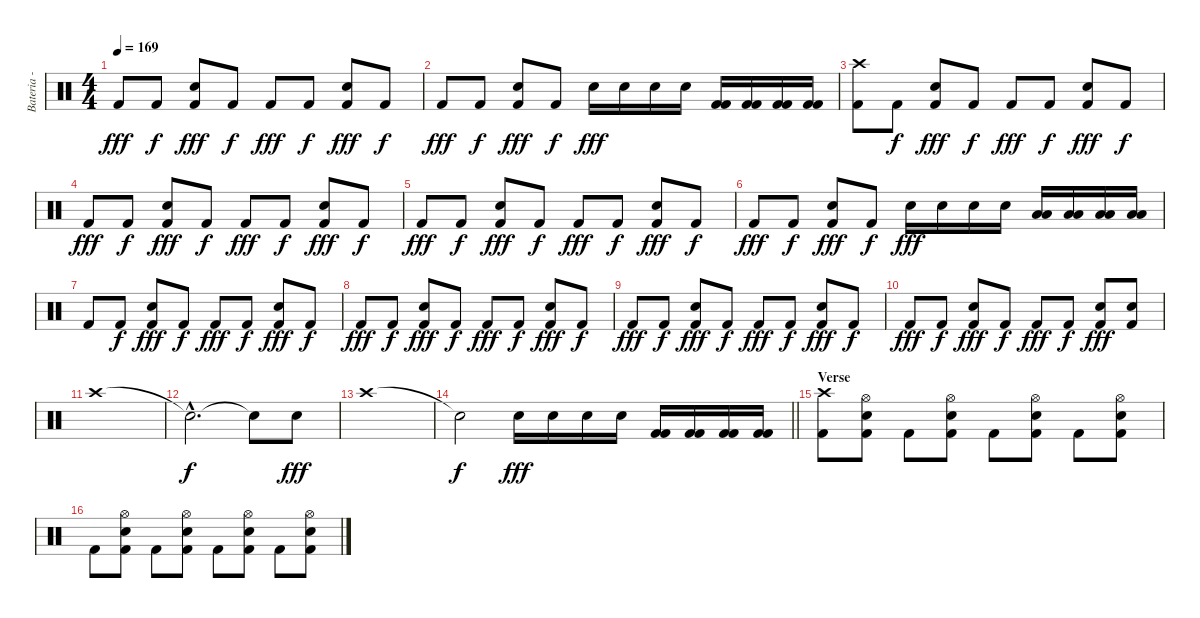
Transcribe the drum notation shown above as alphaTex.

\track ("Bateria - Larzon" "Bateria - ") {instrument percussion}
\staff {score}
\articulation defaults
\ts (4 4)
\tempo 169
\clef neutral
\ks c "Kick (hit) 2".8{dy fff} "Kick (hit) 2".8{dy f}
("Kick (hit) 2" "Snare (hit) 2").8{dy fff} "Kick (hit) 2".8{dy f} "Kick (hit) 2".8{dy fff} "Kick (hit) 2".8{dy f} ("Kick (hit) 2" "Snare (hit) 2").8{dy fff} "Kick (hit) 2".8{dy f} |
"Kick (hit) 2".8{dy fff} "Kick (hit) 2".8{dy f} ("Kick (hit) 2" "Snare (hit) 2").8{dy fff} "Kick (hit) 2".8{dy f} "Snare (hit) 2".16{dy fff} "Snare (hit) 2".16 "Snare (hit) 2".16 "Snare (hit) 2".16 ("Kick (hit) 2" "Kick (hit) 2").16 ("Kick (hit) 2" "Kick (hit) 2").16 ("Kick (hit) 2" "Kick (hit) 2").16 ("Kick (hit) 2" "Kick (hit) 2").16 |
("Crash high (hit)" "Kick (hit) 2").8 "Kick (hit) 2".8{dy f} ("Kick (hit) 2" "Snare (hit) 2").8{dy fff} "Kick (hit) 2".8{dy f} "Kick (hit) 2".8{dy fff} "Kick (hit) 2".8{dy f} ("Kick (hit) 2" "Snare (hit) 2").8{dy fff} "Kick (hit) 2".8{dy f} |
"Kick (hit) 2".8{dy fff} "Kick (hit) 2".8{dy f} ("Kick (hit) 2" "Snare (hit) 2").8{dy fff} "Kick (hit) 2".8{dy f} "Kick (hit) 2".8{dy fff} "Kick (hit) 2".8{dy f} ("Kick (hit) 2" "Snare (hit) 2").8{dy fff} "Kick (hit) 2".8{dy f} |
"Kick (hit) 2".8{dy fff} "Kick (hit) 2".8{dy f} ("Kick (hit) 2" "Snare (hit) 2").8{dy fff} "Kick (hit) 2".8{dy f} "Kick (hit) 2".8{dy fff} "Kick (hit) 2".8{dy f} ("Kick (hit) 2" "Snare (hit) 2").8{dy fff} "Kick (hit) 2".8{dy f} |
"Kick (hit) 2".8{dy fff} "Kick (hit) 2".8{dy f} ("Kick (hit) 2" "Snare (hit) 2").8{dy fff} "Kick (hit) 2".8{dy f} "Snare (hit) 2".16{dy fff} "Snare (hit) 2".16 "Snare (hit) 2".16 "Snare (hit) 2".16 ("Low Floor Tom (hit)" "Low Floor Tom (hit)").16 ("Low Floor Tom (hit)" "Low Floor Tom (hit)").16 ("Low Floor Tom (hit)" "Low Floor Tom (hit)").16 ("Low Floor Tom (hit)" "Low Floor Tom (hit)").16 |
"Kick (hit) 2".8 "Kick (hit) 2".8{dy f} ("Kick (hit) 2" "Snare (hit) 2").8{dy fff} "Kick (hit) 2".8{dy f} "Kick (hit) 2".8{dy fff} "Kick (hit) 2".8{dy f} ("Kick (hit) 2" "Snare (hit) 2").8{dy fff} "Kick (hit) 2".8{dy f} |
"Kick (hit) 2".8{dy fff} "Kick (hit) 2".8{dy f} ("Kick (hit) 2" "Snare (hit) 2").8{dy fff} "Kick (hit) 2".8{dy f} "Kick (hit) 2".8{dy fff} "Kick (hit) 2".8{dy f} ("Kick (hit) 2" "Snare (hit) 2").8{dy fff} "Kick (hit) 2".8{dy f} |
"Kick (hit) 2".8{dy fff} "Kick (hit) 2".8{dy f} ("Kick (hit) 2" "Snare (hit) 2").8{dy fff} "Kick (hit) 2".8{dy f} "Kick (hit) 2".8{dy fff} "Kick (hit) 2".8{dy f} ("Kick (hit) 2" "Snare (hit) 2").8{dy fff} "Kick (hit) 2".8{dy f} |
"Kick (hit) 2".8{dy fff} "Kick (hit) 2".8{dy f} ("Kick (hit) 2" "Snare (hit) 2").8{dy fff} "Kick (hit) 2".8{dy f} "Kick (hit) 2".8{dy fff} "Kick (hit) 2".8{dy f} ("Kick (hit) 2" "Snare (hit) 2").8{dy fff} ("Kick (hit) 2" "Snare (hit) 2").8 |
"Crash high (hit)".1 |
"Snare (hit)"{hac t}.2{d dy f} "Snare (hit)"{t}.8 "Snare (hit) 2".8{dy fff} |
"Crash high (hit)".1 |
\barLineRight lightlight "Snare (hit)"{t}.2{dy f} "Snare (hit) 2".16{dy fff} "Snare (hit) 2".16 "Snare (hit) 2".16 "Snare (hit) 2".16
("Kick (hit) 2" "Kick (hit) 2").16 ("Kick (hit) 2" "Kick (hit) 2").16 ("Kick (hit) 2" "Kick (hit) 2").16 ("Kick (hit) 2" "Kick (hit) 2").16 |
\section ("" "Verse")
("Crash high (hit)" "Kick (hit) 2").8 ("Kick (hit) 2" "Hi-Hat (open)" "Snare (hit) 2").8 "Kick (hit) 2".8 ("Kick (hit) 2" "Hi-Hat (open)" "Snare (hit) 2").8 "Kick (hit) 2".8 ("Kick (hit) 2" "Hi-Hat (open)" "Snare (hit) 2").8 "Kick (hit) 2".8 ("Kick (hit) 2" "Hi-Hat (open)" "Snare (hit) 2").8 |
"Kick (hit) 2".8 ("Kick (hit) 2" "Hi-Hat (open)" "Snare (hit) 2").8 "Kick (hit) 2".8 ("Kick (hit) 2" "Hi-Hat (open)" "Snare (hit) 2").8 "Kick (hit) 2".8 ("Kick (hit) 2" "Hi-Hat (open)" "Snare (hit) 2").8 "Kick (hit) 2".8 ("Kick (hit) 2" "Hi-Hat (open)" "Snare (hit) 2").8
